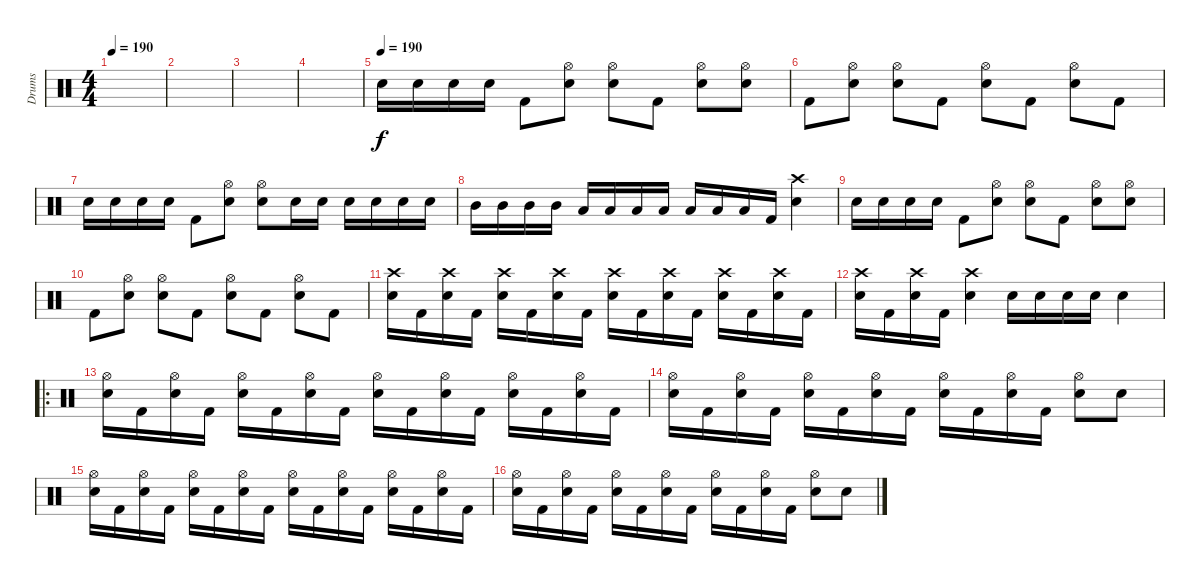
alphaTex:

\track ("Drums" "Drums") {instrument percussion}
\staff {score}
\articulation defaults
\ts (4 4)
\tempo 190
\tempo 180
\tempo 190
\clef neutral
\ks c
|
|
|
|
\tempo (190)
"Electric Snare (hit)".16 "Electric Snare (hit)".16 "Electric Snare (hit)".16 "Electric Snare (hit)".16 "Kick (hit) 2".8 ("Hi-Hat (open)" "Electric Snare (hit)").8 ("Hi-Hat (open)" "Electric Snare (hit)").8 "Kick (hit) 2".8 ("Hi-Hat (open)" "Electric Snare (hit)").8 ("Hi-Hat (open)" "Electric Snare (hit)").8 |
"Kick (hit) 2".8 ("Hi-Hat (open)" "Electric Snare (hit)").8 ("Hi-Hat (open)" "Electric Snare (hit)").8 "Kick (hit) 2".8 ("Hi-Hat (open)" "Electric Snare (hit)").8 "Kick (hit) 2".8 ("Hi-Hat (open)" "Electric Snare (hit)").8 "Kick (hit) 2".8 |
"Electric Snare (hit)".16 "Electric Snare (hit)".16 "Electric Snare (hit)".16 "Electric Snare (hit)".16 "Kick (hit) 2".8 ("Hi-Hat (open)" "Electric Snare (hit)").8 ("Hi-Hat (open)" "Electric Snare (hit)").8 "Electric Snare (hit)".16 "Electric Snare (hit)".16 "Electric Snare (hit)".16 "Electric Snare (hit)".16 "Electric Snare (hit)".16 "Electric Snare (hit)".16 |
"Mid Tom (hit)".16 "Mid Tom (hit)".16 "Mid Tom (hit)".16 "Mid Tom (hit)".16 "Low Tom (hit)".16 "Low Tom (hit)".16 "Low Tom (hit)".16 "Low Tom (hit)".16 "Low Floor Tom (hit)".16 "Low Floor Tom (hit)".16 "Low Floor Tom (hit)".16 "Kick (hit) 2".16 ("Crash high (hit)" "Electric Snare (hit)").4 |
"Electric Snare (hit)".16 "Electric Snare (hit)".16 "Electric Snare (hit)".16 "Electric Snare (hit)".16 "Kick (hit) 2".8 ("Hi-Hat (open)" "Electric Snare (hit)").8 ("Hi-Hat (open)" "Electric Snare (hit)").8 "Kick (hit) 2".8 ("Hi-Hat (open)" "Electric Snare (hit)").8 ("Hi-Hat (open)" "Electric Snare (hit)").8 |
"Kick (hit) 2".8 ("Hi-Hat (open)" "Electric Snare (hit)").8 ("Hi-Hat (open)" "Electric Snare (hit)").8 "Kick (hit) 2".8 ("Hi-Hat (open)" "Electric Snare (hit)").8 "Kick (hit) 2".8 ("Hi-Hat (open)" "Electric Snare (hit)").8 "Kick (hit) 2".8 |
("Crash high (hit)" "Electric Snare (hit)").16 "Kick (hit) 2".16 ("Crash high (hit)" "Electric Snare (hit)").16 "Kick (hit) 2".16 ("Crash high (hit)" "Electric Snare (hit)").16 "Kick (hit) 2".16 ("Crash high (hit)" "Electric Snare (hit)").16 "Kick (hit) 2".16 ("Crash high (hit)" "Electric Snare (hit)").16 "Kick (hit) 2".16 ("Crash high (hit)" "Electric Snare (hit)").16 "Kick (hit) 2".16 ("Crash high (hit)" "Electric Snare (hit)").16 "Kick (hit) 2".16 ("Crash high (hit)" "Electric Snare (hit)").16 "Kick (hit) 2".16 |
("Crash high (hit)" "Electric Snare (hit)").16 "Kick (hit) 2".16 ("Crash high (hit)" "Electric Snare (hit)").16 "Kick (hit) 2".16 ("Crash high (hit)" "Electric Snare (hit)").4 "Electric Snare (hit)".16 "Electric Snare (hit)".16 "Electric Snare (hit)".16 "Electric Snare (hit)".16 "Electric Snare (hit)".4 |
\ro
("Hi-Hat (open)" "Electric Snare (hit)").16 "Kick (hit) 2".16 ("Hi-Hat (open)" "Electric Snare (hit)").16 "Kick (hit) 2".16 ("Hi-Hat (open)" "Electric Snare (hit)").16 "Kick (hit) 2".16 ("Hi-Hat (open)" "Electric Snare (hit)").16 "Kick (hit) 2".16 ("Hi-Hat (open)" "Electric Snare (hit)").16 "Kick (hit) 2".16 ("Hi-Hat (open)" "Electric Snare (hit)").16 "Kick (hit) 2".16 ("Hi-Hat (open)" "Electric Snare (hit)").16 "Kick (hit) 2".16 ("Hi-Hat (open)" "Electric Snare (hit)").16 "Kick (hit) 2".16 |
("Hi-Hat (open)" "Electric Snare (hit)").16 "Kick (hit) 2".16 ("Hi-Hat (open)" "Electric Snare (hit)").16 "Kick (hit) 2".16 ("Hi-Hat (open)" "Electric Snare (hit)").16 "Kick (hit) 2".16 ("Hi-Hat (open)" "Electric Snare (hit)").16 "Kick (hit) 2".16 ("Hi-Hat (open)" "Electric Snare (hit)").16 "Kick (hit) 2".16 ("Hi-Hat (open)" "Electric Snare (hit)").16 "Kick (hit) 2".16 ("Hi-Hat (open)" "Electric Snare (hit)").8 "Electric Snare (hit)".8 |
("Hi-Hat (open)" "Electric Snare (hit)").16 "Kick (hit) 2".16 ("Hi-Hat (open)" "Electric Snare (hit)").16 "Kick (hit) 2".16 ("Hi-Hat (open)" "Electric Snare (hit)").16 "Kick (hit) 2".16 ("Hi-Hat (open)" "Electric Snare (hit)").16 "Kick (hit) 2".16 ("Hi-Hat (open)" "Electric Snare (hit)").16 "Kick (hit) 2".16 ("Hi-Hat (open)" "Electric Snare (hit)").16 "Kick (hit) 2".16 ("Hi-Hat (open)" "Electric Snare (hit)").16 "Kick (hit) 2".16 ("Hi-Hat (open)" "Electric Snare (hit)").16 "Kick (hit) 2".16 |
("Hi-Hat (open)" "Electric Snare (hit)").16 "Kick (hit) 2".16 ("Hi-Hat (open)" "Electric Snare (hit)").16 "Kick (hit) 2".16 ("Hi-Hat (open)" "Electric Snare (hit)").16 "Kick (hit) 2".16 ("Hi-Hat (open)" "Electric Snare (hit)").16 "Kick (hit) 2".16 ("Hi-Hat (open)" "Electric Snare (hit)").16 "Kick (hit) 2".16 ("Hi-Hat (open)" "Electric Snare (hit)").16 "Kick (hit) 2".16 ("Hi-Hat (open)" "Electric Snare (hit)").8 "Electric Snare (hit)".8
